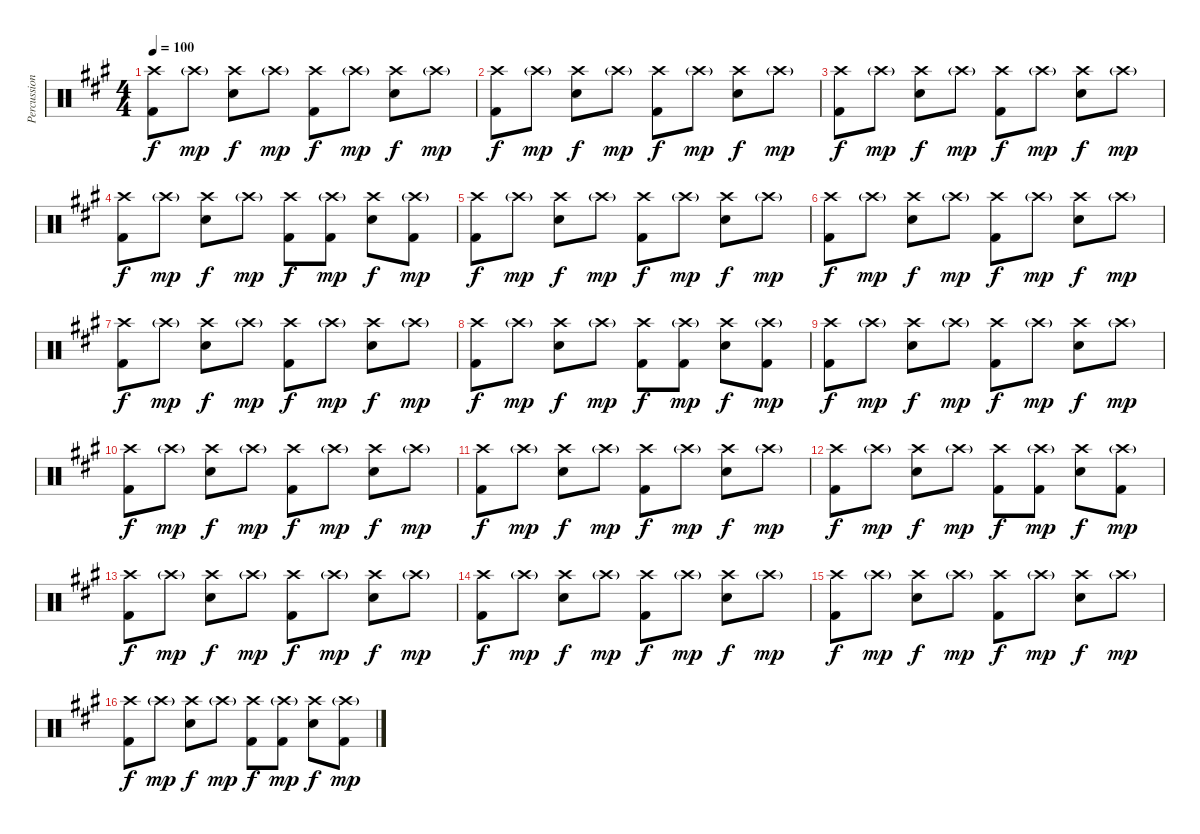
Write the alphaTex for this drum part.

\track ("Percussion" "Percussion") {instrument percussion}
\staff {score}
\articulation defaults
\ts (4 4)
\tempo 100
\clef neutral
\ks a
("Crash high (hit)" "Kick (hit) 2").8{dy f} "Crash high (hit)"{g}.8{dy mp} ("Crash high (hit)" "Snare (hit) 2").8{dy f} "Crash high (hit)"{g}.8{dy mp} ("Crash high (hit)" "Kick (hit) 2").8{dy f} "Crash high (hit)"{g}.8{dy mp} ("Crash high (hit)" "Snare (hit) 2").8{dy f} "Crash high (hit)"{g}.8{dy mp} |
("Crash high (hit)" "Kick (hit) 2").8{dy f} "Crash high (hit)"{g}.8{dy mp} ("Crash high (hit)" "Snare (hit) 2").8{dy f} "Crash high (hit)"{g}.8{dy mp} ("Crash high (hit)" "Kick (hit) 2").8{dy f} "Crash high (hit)"{g}.8{dy mp} ("Crash high (hit)" "Snare (hit) 2").8{dy f} "Crash high (hit)"{g}.8{dy mp} |
("Crash high (hit)" "Kick (hit) 2").8{dy f} "Crash high (hit)"{g}.8{dy mp} ("Crash high (hit)" "Snare (hit) 2").8{dy f} "Crash high (hit)"{g}.8{dy mp} ("Crash high (hit)" "Kick (hit) 2").8{dy f} "Crash high (hit)"{g}.8{dy mp} ("Crash high (hit)" "Snare (hit) 2").8{dy f} "Crash high (hit)"{g}.8{dy mp} |
("Crash high (hit)" "Kick (hit) 2").8{dy f} "Crash high (hit)"{g}.8{dy mp} ("Crash high (hit)" "Snare (hit) 2").8{dy f} "Crash high (hit)"{g}.8{dy mp} ("Crash high (hit)" "Kick (hit) 2").8{dy f} ("Crash high (hit)"{g} "Kick (hit) 2").8{dy mp} ("Crash high (hit)" "Snare (hit) 2").8{dy f} ("Crash high (hit)"{g} "Kick (hit) 2").8{dy mp} |
("Crash high (hit)" "Kick (hit) 2").8{dy f} "Crash high (hit)"{g}.8{dy mp} ("Crash high (hit)" "Snare (hit) 2").8{dy f} "Crash high (hit)"{g}.8{dy mp} ("Crash high (hit)" "Kick (hit) 2").8{dy f} "Crash high (hit)"{g}.8{dy mp} ("Crash high (hit)" "Snare (hit) 2").8{dy f} "Crash high (hit)"{g}.8{dy mp} |
("Crash high (hit)" "Kick (hit) 2").8{dy f} "Crash high (hit)"{g}.8{dy mp} ("Crash high (hit)" "Snare (hit) 2").8{dy f} "Crash high (hit)"{g}.8{dy mp} ("Crash high (hit)" "Kick (hit) 2").8{dy f} "Crash high (hit)"{g}.8{dy mp} ("Crash high (hit)" "Snare (hit) 2").8{dy f} "Crash high (hit)"{g}.8{dy mp} |
("Crash high (hit)" "Kick (hit) 2").8{dy f} "Crash high (hit)"{g}.8{dy mp} ("Crash high (hit)" "Snare (hit) 2").8{dy f} "Crash high (hit)"{g}.8{dy mp} ("Crash high (hit)" "Kick (hit) 2").8{dy f} "Crash high (hit)"{g}.8{dy mp} ("Crash high (hit)" "Snare (hit) 2").8{dy f} "Crash high (hit)"{g}.8{dy mp} |
("Crash high (hit)" "Kick (hit) 2").8{dy f} "Crash high (hit)"{g}.8{dy mp} ("Crash high (hit)" "Snare (hit) 2").8{dy f} "Crash high (hit)"{g}.8{dy mp} ("Crash high (hit)" "Kick (hit) 2").8{dy f} ("Crash high (hit)"{g} "Kick (hit) 2").8{dy mp} ("Crash high (hit)" "Snare (hit) 2").8{dy f} ("Crash high (hit)"{g} "Kick (hit) 2").8{dy mp} |
("Crash high (hit)" "Kick (hit) 2").8{dy f} "Crash high (hit)"{g}.8{dy mp} ("Crash high (hit)" "Snare (hit) 2").8{dy f} "Crash high (hit)"{g}.8{dy mp} ("Crash high (hit)" "Kick (hit) 2").8{dy f} "Crash high (hit)"{g}.8{dy mp} ("Crash high (hit)" "Snare (hit) 2").8{dy f} "Crash high (hit)"{g}.8{dy mp} |
("Crash high (hit)" "Kick (hit) 2").8{dy f} "Crash high (hit)"{g}.8{dy mp} ("Crash high (hit)" "Snare (hit) 2").8{dy f} "Crash high (hit)"{g}.8{dy mp} ("Crash high (hit)" "Kick (hit) 2").8{dy f} "Crash high (hit)"{g}.8{dy mp} ("Crash high (hit)" "Snare (hit) 2").8{dy f} "Crash high (hit)"{g}.8{dy mp} |
("Crash high (hit)" "Kick (hit) 2").8{dy f} "Crash high (hit)"{g}.8{dy mp} ("Crash high (hit)" "Snare (hit) 2").8{dy f} "Crash high (hit)"{g}.8{dy mp} ("Crash high (hit)" "Kick (hit) 2").8{dy f} "Crash high (hit)"{g}.8{dy mp} ("Crash high (hit)" "Snare (hit) 2").8{dy f} "Crash high (hit)"{g}.8{dy mp} |
("Crash high (hit)" "Kick (hit) 2").8{dy f} "Crash high (hit)"{g}.8{dy mp} ("Crash high (hit)" "Snare (hit) 2").8{dy f} "Crash high (hit)"{g}.8{dy mp} ("Crash high (hit)" "Kick (hit) 2").8{dy f} ("Crash high (hit)"{g} "Kick (hit) 2").8{dy mp} ("Crash high (hit)" "Snare (hit) 2").8{dy f} ("Crash high (hit)"{g} "Kick (hit) 2").8{dy mp} |
("Crash high (hit)" "Kick (hit) 2").8{dy f} "Crash high (hit)"{g}.8{dy mp} ("Crash high (hit)" "Snare (hit) 2").8{dy f} "Crash high (hit)"{g}.8{dy mp} ("Crash high (hit)" "Kick (hit) 2").8{dy f} "Crash high (hit)"{g}.8{dy mp} ("Crash high (hit)" "Snare (hit) 2").8{dy f} "Crash high (hit)"{g}.8{dy mp} |
("Crash high (hit)" "Kick (hit) 2").8{dy f} "Crash high (hit)"{g}.8{dy mp} ("Crash high (hit)" "Snare (hit) 2").8{dy f} "Crash high (hit)"{g}.8{dy mp} ("Crash high (hit)" "Kick (hit) 2").8{dy f} "Crash high (hit)"{g}.8{dy mp} ("Crash high (hit)" "Snare (hit) 2").8{dy f} "Crash high (hit)"{g}.8{dy mp} |
("Crash high (hit)" "Kick (hit) 2").8{dy f} "Crash high (hit)"{g}.8{dy mp} ("Crash high (hit)" "Snare (hit) 2").8{dy f} "Crash high (hit)"{g}.8{dy mp} ("Crash high (hit)" "Kick (hit) 2").8{dy f} "Crash high (hit)"{g}.8{dy mp} ("Crash high (hit)" "Snare (hit) 2").8{dy f} "Crash high (hit)"{g}.8{dy mp} |
("Crash high (hit)" "Kick (hit) 2").8{dy f} "Crash high (hit)"{g}.8{dy mp} ("Crash high (hit)" "Snare (hit) 2").8{dy f} "Crash high (hit)"{g}.8{dy mp} ("Crash high (hit)" "Kick (hit) 2").8{dy f} ("Crash high (hit)"{g} "Kick (hit) 2").8{dy mp} ("Crash high (hit)" "Snare (hit) 2").8{dy f} ("Crash high (hit)"{g} "Kick (hit) 2").8{dy mp}
